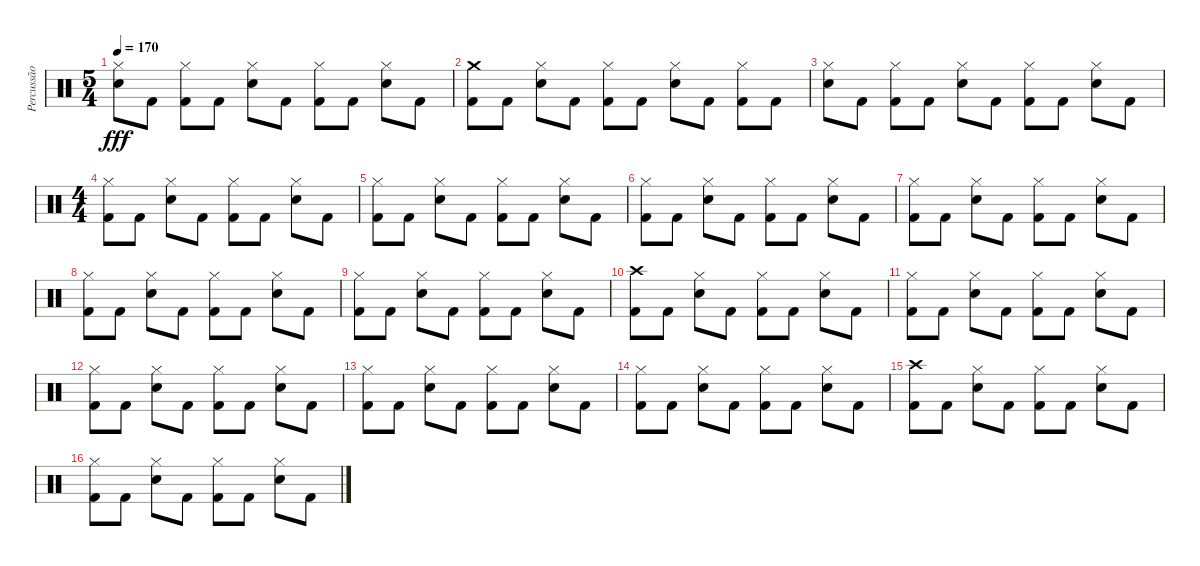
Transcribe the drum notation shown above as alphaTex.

\track ("Percussão" "Percussão") {instrument percussion}
\staff {score}
\articulation defaults
\ts (5 4)
\tempo 170
\clef neutral
\ks c
("Snare (hit) 2" "Hi-Hat (closed)").8{dy fff} "Kick (hit) 2".8 ("Kick (hit) 2" "Hi-Hat (closed)").8 "Kick (hit) 2".8 ("Snare (hit) 2" "Hi-Hat (closed)").8 "Kick (hit) 2".8 ("Kick (hit) 2" "Hi-Hat (closed)").8 "Kick (hit) 2".8 ("Snare (hit) 2" "Hi-Hat (closed)").8 "Kick (hit) 2".8 |
("Kick (hit) 2" "Crash medium (hit)").8 "Kick (hit) 2".8 ("Snare (hit) 2" "Hi-Hat (closed)").8 "Kick (hit) 2".8 ("Kick (hit) 2" "Hi-Hat (closed)").8 "Kick (hit) 2".8 ("Snare (hit) 2" "Hi-Hat (closed)").8 "Kick (hit) 2".8 ("Kick (hit) 2" "Hi-Hat (closed)").8 "Kick (hit) 2".8 |
("Snare (hit) 2" "Hi-Hat (closed)").8 "Kick (hit) 2".8 ("Kick (hit) 2" "Hi-Hat (closed)").8 "Kick (hit) 2".8 ("Snare (hit) 2" "Hi-Hat (closed)").8 "Kick (hit) 2".8 ("Kick (hit) 2" "Hi-Hat (closed)").8 "Kick (hit) 2".8 ("Snare (hit) 2" "Hi-Hat (closed)").8 "Kick (hit) 2".8 |
\ts (4 4)
("Kick (hit) 2" "Hi-Hat (closed)").8 "Kick (hit) 2".8 ("Snare (hit) 2" "Hi-Hat (closed)").8 "Kick (hit) 2".8 ("Kick (hit) 2" "Hi-Hat (closed)").8 "Kick (hit) 2".8 ("Snare (hit) 2" "Hi-Hat (closed)").8 "Kick (hit) 2".8 |
("Kick (hit) 2" "Hi-Hat (closed)").8 "Kick (hit) 2".8 ("Snare (hit) 2" "Hi-Hat (closed)").8 "Kick (hit) 2".8 ("Kick (hit) 2" "Hi-Hat (closed)").8 "Kick (hit) 2".8 ("Snare (hit) 2" "Hi-Hat (closed)").8 "Kick (hit) 2".8 |
("Kick (hit) 2" "Hi-Hat (closed)").8 "Kick (hit) 2".8 ("Snare (hit) 2" "Hi-Hat (closed)").8 "Kick (hit) 2".8 ("Kick (hit) 2" "Hi-Hat (closed)").8 "Kick (hit) 2".8 ("Snare (hit) 2" "Hi-Hat (closed)").8 "Kick (hit) 2".8 |
("Kick (hit) 2" "Hi-Hat (closed)").8 "Kick (hit) 2".8 ("Snare (hit) 2" "Hi-Hat (closed)").8 "Kick (hit) 2".8 ("Kick (hit) 2" "Hi-Hat (closed)").8 "Kick (hit) 2".8 ("Snare (hit) 2" "Hi-Hat (closed)").8 "Kick (hit) 2".8 |
("Kick (hit) 2" "Hi-Hat (closed)").8 "Kick (hit) 2".8 ("Snare (hit) 2" "Hi-Hat (closed)").8 "Kick (hit) 2".8 ("Kick (hit) 2" "Hi-Hat (closed)").8 "Kick (hit) 2".8 ("Snare (hit) 2" "Hi-Hat (closed)").8 "Kick (hit) 2".8 |
("Kick (hit) 2" "Hi-Hat (closed)").8 "Kick (hit) 2".8 ("Snare (hit) 2" "Hi-Hat (closed)").8 "Kick (hit) 2".8 ("Kick (hit) 2" "Hi-Hat (closed)").8 "Kick (hit) 2".8 ("Snare (hit) 2" "Hi-Hat (closed)").8 "Kick (hit) 2".8 |
("Kick (hit) 2" "Crash high (hit)").8 "Kick (hit) 2".8 ("Snare (hit) 2" "Hi-Hat (closed)").8 "Kick (hit) 2".8 ("Kick (hit) 2" "Hi-Hat (closed)").8 "Kick (hit) 2".8 ("Snare (hit) 2" "Hi-Hat (closed)").8 "Kick (hit) 2".8 |
("Kick (hit) 2" "Hi-Hat (closed)").8 "Kick (hit) 2".8 ("Snare (hit) 2" "Hi-Hat (closed)").8 "Kick (hit) 2".8 ("Kick (hit) 2" "Hi-Hat (closed)").8 "Kick (hit) 2".8 ("Snare (hit) 2" "Hi-Hat (closed)").8 "Kick (hit) 2".8 |
("Kick (hit) 2" "Hi-Hat (closed)").8 "Kick (hit) 2".8 ("Snare (hit) 2" "Hi-Hat (closed)").8 "Kick (hit) 2".8 ("Kick (hit) 2" "Hi-Hat (closed)").8 "Kick (hit) 2".8 ("Snare (hit) 2" "Hi-Hat (closed)").8 "Kick (hit) 2".8 |
("Kick (hit) 2" "Hi-Hat (closed)").8 "Kick (hit) 2".8 ("Snare (hit) 2" "Hi-Hat (closed)").8 "Kick (hit) 2".8 ("Kick (hit) 2" "Hi-Hat (closed)").8 "Kick (hit) 2".8 ("Snare (hit) 2" "Hi-Hat (closed)").8 "Kick (hit) 2".8 |
("Kick (hit) 2" "Hi-Hat (closed)").8 "Kick (hit) 2".8 ("Snare (hit) 2" "Hi-Hat (closed)").8 "Kick (hit) 2".8 ("Kick (hit) 2" "Hi-Hat (closed)").8 "Kick (hit) 2".8 ("Snare (hit) 2" "Hi-Hat (closed)").8 "Kick (hit) 2".8 |
("Kick (hit) 2" "Crash high (hit)").8 "Kick (hit) 2".8 ("Snare (hit) 2" "Hi-Hat (closed)").8 "Kick (hit) 2".8 ("Kick (hit) 2" "Hi-Hat (closed)").8 "Kick (hit) 2".8 ("Snare (hit) 2" "Hi-Hat (closed)").8 "Kick (hit) 2".8 |
("Kick (hit) 2" "Hi-Hat (closed)").8 "Kick (hit) 2".8 ("Snare (hit) 2" "Hi-Hat (closed)").8 "Kick (hit) 2".8 ("Kick (hit) 2" "Hi-Hat (closed)").8 "Kick (hit) 2".8 ("Snare (hit) 2" "Hi-Hat (closed)").8 "Kick (hit) 2".8
